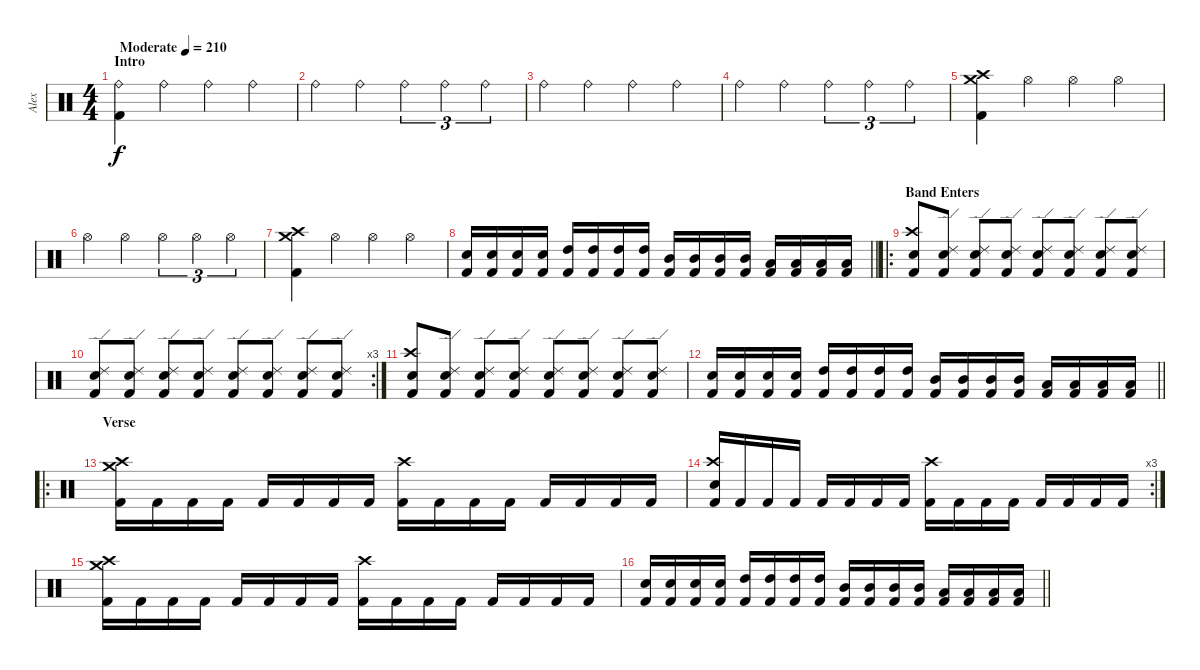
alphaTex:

\track ("Alex" "Alex") {instrument percussion}
\staff {score}
\articulation defaults
\ts (4 4)
\section ("" "Intro")
\tempo (210 "Moderate")
\clef neutral
\ks c
("Ride (bell)" "Kick (hit) 2").4{dy f} "Ride (bell)".4 "Ride (bell)".4 "Ride (bell)".4 |
"Ride (bell)".4 "Ride (bell)".4 "Ride (bell)".4{tu (3 2)} "Ride (bell)".4{tu (3 2)} "Ride (bell)".4{tu (3 2)} |
"Ride (bell)".4 "Ride (bell)".4 "Ride (bell)".4 "Ride (bell)".4 |
"Ride (bell)".4 "Ride (bell)".4 "Ride (bell)".4{tu (3 2)} "Ride (bell)".4{tu (3 2)} "Ride (bell)".4{tu (3 2)} |
("Crash high (hit)" "Crash medium (hit)" "Kick (hit) 2").4 "Hi-Hat (open)".4 "Hi-Hat (open)".4 "Hi-Hat (open)".4 |
"Hi-Hat (open)".4 "Hi-Hat (open)".4 "Hi-Hat (open)".4{tu (3 2)} "Hi-Hat (open)".4{tu (3 2)} "Hi-Hat (open)".4{tu (3 2)} |
("Crash high (hit)" "Crash medium (hit)" "Kick (hit) 2").4 "Hi-Hat (open)".4 "Hi-Hat (open)".4 "Hi-Hat (open)".4 |
\barLineRight lightlight
("Electric Snare (hit)" "Kick (hit) 2").16 ("Electric Snare (hit)" "Kick (hit) 2").16 ("Electric Snare (hit)" "Kick (hit) 2").16 ("Electric Snare (hit)" "Kick (hit) 2").16 ("High Tom (hit)" "Kick (hit) 2").16 ("High Tom (hit)" "Kick (hit) 2").16 ("High Tom (hit)" "Kick (hit) 2").16 ("High Tom (hit)" "Kick (hit) 2").16 ("Mid Tom (hit)" "Kick (hit) 2").16 ("Mid Tom (hit)" "Kick (hit) 2").16 ("Mid Tom (hit)" "Kick (hit) 2").16 ("Mid Tom (hit)" "Kick (hit) 2").16 ("Low Tom (hit)" "Kick (hit) 2").16 ("Low Tom (hit)" "Kick (hit) 2").16 ("Low Tom (hit)" "Kick (hit) 2").16 ("Low Tom (hit)" "Kick (hit) 2").16 |
\ro
\section ("" "Band Enters")
("Crash high (hit)" "Electric Snare (hit)" "Kick (hit) 2").8 ("Ride (edge) 2" "Electric Snare (hit)" "Kick (hit) 2").8 ("Ride (edge) 2" "Electric Snare (hit)" "Kick (hit) 2").8 ("Ride (edge) 2" "Electric Snare (hit)" "Kick (hit) 2").8 ("Ride (edge) 2" "Electric Snare (hit)" "Kick (hit) 2").8 ("Ride (edge) 2" "Electric Snare (hit)" "Kick (hit) 2").8 ("Ride (edge) 2" "Electric Snare (hit)" "Kick (hit) 2").8 ("Ride (edge) 2" "Electric Snare (hit)" "Kick (hit) 2").8 |
\rc 3
("Ride (edge) 2" "Electric Snare (hit)" "Kick (hit) 2").8 ("Ride (edge) 2" "Electric Snare (hit)" "Kick (hit) 2").8 ("Ride (edge) 2" "Electric Snare (hit)" "Kick (hit) 2").8 ("Ride (edge) 2" "Electric Snare (hit)" "Kick (hit) 2").8 ("Ride (edge) 2" "Electric Snare (hit)" "Kick (hit) 2").8 ("Ride (edge) 2" "Electric Snare (hit)" "Kick (hit) 2").8 ("Ride (edge) 2" "Electric Snare (hit)" "Kick (hit) 2").8 ("Ride (edge) 2" "Electric Snare (hit)" "Kick (hit) 2").8 |
("Crash high (hit)" "Electric Snare (hit)" "Kick (hit) 2").8 ("Ride (edge) 2" "Electric Snare (hit)" "Kick (hit) 2").8 ("Ride (edge) 2" "Electric Snare (hit)" "Kick (hit) 2").8 ("Ride (edge) 2" "Electric Snare (hit)" "Kick (hit) 2").8 ("Ride (edge) 2" "Electric Snare (hit)" "Kick (hit) 2").8 ("Ride (edge) 2" "Electric Snare (hit)" "Kick (hit) 2").8 ("Ride (edge) 2" "Electric Snare (hit)" "Kick (hit) 2").8 ("Ride (edge) 2" "Electric Snare (hit)" "Kick (hit) 2").8 |
\barLineRight lightlight
("Electric Snare (hit)" "Kick (hit) 2").16 ("Electric Snare (hit)" "Kick (hit) 2").16 ("Electric Snare (hit)" "Kick (hit) 2").16 ("Electric Snare (hit)" "Kick (hit) 2").16 ("High Tom (hit)" "Kick (hit) 2").16 ("High Tom (hit)" "Kick (hit) 2").16 ("High Tom (hit)" "Kick (hit) 2").16 ("High Tom (hit)" "Kick (hit) 2").16 ("Mid Tom (hit)" "Kick (hit) 2").16 ("Mid Tom (hit)" "Kick (hit) 2").16 ("Mid Tom (hit)" "Kick (hit) 2").16 ("Mid Tom (hit)" "Kick (hit) 2").16 ("Low Tom (hit)" "Kick (hit) 2").16 ("Low Tom (hit)" "Kick (hit) 2").16 ("Low Tom (hit)" "Kick (hit) 2").16 ("Low Tom (hit)" "Kick (hit) 2").16 |
\ro
\section ("" "Verse")
("Crash high (hit)" "Crash medium (hit)" "Kick (hit) 2").16 "Kick (hit) 2".16 "Kick (hit) 2".16 "Kick (hit) 2".16 "Kick (hit) 2".16 "Kick (hit) 2".16 "Kick (hit) 2".16 "Kick (hit) 2".16 ("Crash high (hit)" "Kick (hit) 2").16 "Kick (hit) 2".16 "Kick (hit) 2".16 "Kick (hit) 2".16 "Kick (hit) 2".16 "Kick (hit) 2".16 "Kick (hit) 2".16 "Kick (hit) 2".16 |
\rc 3
("Crash high (hit)" "Electric Snare (hit)" "Kick (hit) 2").16 "Kick (hit) 2".16 "Kick (hit) 2".16 "Kick (hit) 2".16 "Kick (hit) 2".16 "Kick (hit) 2".16 "Kick (hit) 2".16 "Kick (hit) 2".16 ("Crash high (hit)" "Kick (hit) 2").16 "Kick (hit) 2".16 "Kick (hit) 2".16 "Kick (hit) 2".16 "Kick (hit) 2".16 "Kick (hit) 2".16 "Kick (hit) 2".16 "Kick (hit) 2".16 |
("Crash high (hit)" "Crash medium (hit)" "Kick (hit) 2").16 "Kick (hit) 2".16 "Kick (hit) 2".16 "Kick (hit) 2".16 "Kick (hit) 2".16 "Kick (hit) 2".16 "Kick (hit) 2".16 "Kick (hit) 2".16 ("Crash high (hit)" "Kick (hit) 2").16 "Kick (hit) 2".16 "Kick (hit) 2".16 "Kick (hit) 2".16 "Kick (hit) 2".16 "Kick (hit) 2".16 "Kick (hit) 2".16 "Kick (hit) 2".16 |
\barLineRight lightlight
("Electric Snare (hit)" "Kick (hit) 2").16 ("Electric Snare (hit)" "Kick (hit) 2").16 ("Electric Snare (hit)" "Kick (hit) 2").16 ("Electric Snare (hit)" "Kick (hit) 2").16 ("High Tom (hit)" "Kick (hit) 2").16 ("High Tom (hit)" "Kick (hit) 2").16 ("High Tom (hit)" "Kick (hit) 2").16 ("High Tom (hit)" "Kick (hit) 2").16 ("Mid Tom (hit)" "Kick (hit) 2").16 ("Mid Tom (hit)" "Kick (hit) 2").16 ("Mid Tom (hit)" "Kick (hit) 2").16 ("Mid Tom (hit)" "Kick (hit) 2").16 ("Low Tom (hit)" "Kick (hit) 2").16 ("Low Tom (hit)" "Kick (hit) 2").16 ("Low Tom (hit)" "Kick (hit) 2").16 ("Low Tom (hit)" "Kick (hit) 2").16
